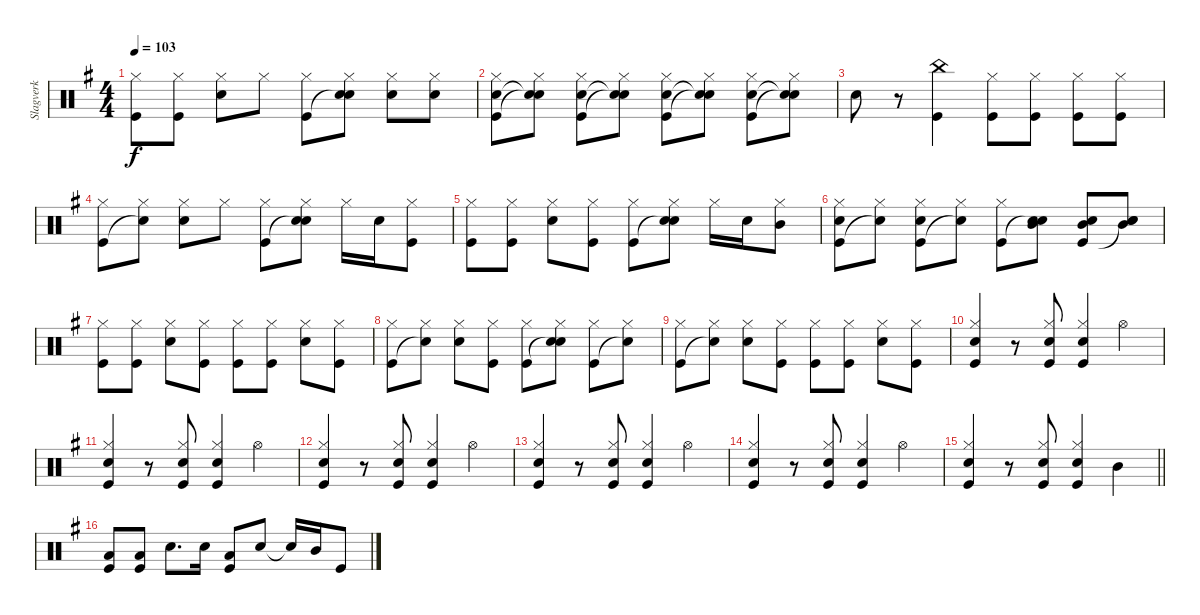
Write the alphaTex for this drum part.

\track ("Slagverk" "Slagverk") {instrument percussion}
\staff {score}
\articulation defaults
\ts (4 4)
\tempo 103
\clef neutral
\ks g
("Kick (hit)" "Hi-Hat (closed)").8{dy f} ("Kick (hit)" "Hi-Hat (closed)").8 ("Snare (hit) 2" "Hi-Hat (closed)").8 "Hi-Hat (closed)".8 ("Kick (hit)" "Hi-Hat (closed)").8 ("Snare (hit)"{t} "Snare (hit) 2" "Hi-Hat (closed)").8 ("Snare (hit) 2" "Hi-Hat (closed)").8 ("Snare (hit) 2" "Hi-Hat (closed)").8 |
("Kick (hit)" "Snare (hit) 2" "Hi-Hat (closed)").8 ("Snare (hit)"{t} "Snare (hit)"{t} "Hi-Hat (closed)").8 ("Kick (hit)" "Snare (hit) 2" "Hi-Hat (closed)").8 ("Snare (hit)"{t} "Snare (hit)"{t} "Hi-Hat (closed)").8 ("Kick (hit)" "Snare (hit) 2" "Hi-Hat (closed)").8 ("Snare (hit)"{t} "Snare (hit)"{t} "Hi-Hat (closed)").8 ("Kick (hit)" "Snare (hit) 2" "Hi-Hat (closed)").8 ("Snare (hit)"{t} "Snare (hit)"{t} "Hi-Hat (closed)").8 |
"Snare (hit) 2".8 r.8 ("Kick (hit)" "China (hit)").4 ("Kick (hit)" "Hi-Hat (closed)").8 ("Kick (hit)" "Hi-Hat (closed)").8 ("Kick (hit)" "Hi-Hat (closed)").8 ("Kick (hit)" "Hi-Hat (closed)").8 |
("Kick (hit)" "Hi-Hat (closed)").8 ("Snare (hit)"{t} "Hi-Hat (closed)").8 ("Snare (hit) 2" "Hi-Hat (closed)").8 "Hi-Hat (closed)".8 ("Kick (hit)" "Hi-Hat (closed)").8 ("Snare (hit)"{t} "Snare (hit) 2" "Hi-Hat (closed)").8 "Hi-Hat (closed)".16 "Snare (hit) 2".16 ("Kick (hit)" "Hi-Hat (closed)").8 |
("Kick (hit)" "Hi-Hat (closed)").8 ("Kick (hit)" "Hi-Hat (closed)").8 ("Snare (hit) 2" "Hi-Hat (closed)").8 ("Kick (hit)" "Hi-Hat (closed)").8 ("Kick (hit)" "Hi-Hat (closed)").8 ("Snare (hit)"{t} "Snare (hit) 2" "Hi-Hat (closed)").8 "Hi-Hat (closed)".16 "Snare (hit) 2".16 ("Mid Tom (hit)" "Hi-Hat (closed)").8 |
("Kick (hit)" "Snare (hit) 2" "Hi-Hat (closed)").8 ("Snare (hit)"{t} "Hi-Hat (closed)").8 ("Kick (hit)" "Snare (hit) 2" "Hi-Hat (closed)").8 ("Snare (hit)"{t} "Hi-Hat (closed)").8 ("Kick (hit)" "Hi-Hat (closed)").8 ("Snare (hit)"{t} "Snare (hit) 2" "Mid Tom (hit)").8 ("Kick (hit)" "Snare (hit) 2" "Mid Tom (hit)").8 ("Snare (hit)"{t} "Snare (hit) 2" "Mid Tom (hit)").8 |
("Kick (hit)" "Hi-Hat (closed)").8 ("Kick (hit)" "Hi-Hat (closed)").8 ("Snare (hit) 2" "Hi-Hat (closed)").8 ("Kick (hit)" "Hi-Hat (closed)").8 ("Kick (hit)" "Hi-Hat (closed)").8 ("Kick (hit)" "Hi-Hat (closed)").8 ("Snare (hit) 2" "Hi-Hat (closed)").8 ("Kick (hit)" "Hi-Hat (closed)").8 |
("Kick (hit)" "Hi-Hat (closed)").8 ("Snare (hit)"{t} "Hi-Hat (closed)").8 ("Snare (hit) 2" "Hi-Hat (closed)").8 ("Kick (hit)" "Hi-Hat (closed)").8 ("Kick (hit)" "Hi-Hat (closed)").8 ("Snare (hit)"{t} "Snare (hit) 2" "Hi-Hat (closed)").8 ("Kick (hit)" "Hi-Hat (closed)").8 ("Snare (hit)"{t} "Hi-Hat (closed)").8 |
("Kick (hit)" "Hi-Hat (closed)").8 ("Snare (hit)"{t} "Hi-Hat (closed)").8 ("Snare (hit) 2" "Hi-Hat (closed)").8 ("Kick (hit)" "Hi-Hat (closed)").8 ("Kick (hit)" "Hi-Hat (closed)").8 ("Kick (hit)" "Hi-Hat (closed)").8 ("Snare (hit) 2" "Hi-Hat (closed)").8 ("Kick (hit)" "Hi-Hat (closed)").8 |
("Kick (hit)" "Snare (hit) 2" "Hi-Hat (closed)").4 r.8 ("Kick (hit)" "Snare (hit) 2" "Hi-Hat (closed)").8 ("Kick (hit)" "Snare (hit) 2" "Hi-Hat (closed)").4 "Hi-Hat (open)".4 |
("Kick (hit)" "Snare (hit) 2" "Hi-Hat (closed)").4 r.8 ("Kick (hit)" "Snare (hit) 2" "Hi-Hat (closed)").8 ("Kick (hit)" "Snare (hit) 2" "Hi-Hat (closed)").4 "Hi-Hat (open)".4 |
("Kick (hit)" "Snare (hit) 2" "Hi-Hat (closed)").4 r.8 ("Kick (hit)" "Snare (hit) 2" "Hi-Hat (closed)").8 ("Kick (hit)" "Snare (hit) 2" "Hi-Hat (closed)").4 "Hi-Hat (open)".4 |
("Kick (hit)" "Snare (hit) 2" "Hi-Hat (closed)").4 r.8 ("Kick (hit)" "Snare (hit) 2" "Hi-Hat (closed)").8 ("Kick (hit)" "Snare (hit) 2" "Hi-Hat (closed)").4 "Hi-Hat (open)".4 |
("Kick (hit)" "Snare (hit) 2" "Hi-Hat (closed)").4 r.8 ("Kick (hit)" "Snare (hit) 2" "Hi-Hat (closed)").8 ("Kick (hit)" "Snare (hit) 2" "Hi-Hat (closed)").4 "Hi-Hat (open)".4 |
\barLineRight lightlight
("Kick (hit)" "Snare (hit) 2" "Hi-Hat (closed)").4 r.8 ("Kick (hit)" "Snare (hit) 2" "Hi-Hat (closed)").8 ("Kick (hit)" "Snare (hit) 2" "Hi-Hat (closed)").4 "Mid Tom (hit)".4 |
("Kick (hit)" "Low Tom (hit)").8 ("Kick (hit)" "Low Tom (hit)").8 "Snare (hit) 2".8{d} "Snare (hit) 2".16 ("Kick (hit)" "Low Tom (hit)").8 "Snare (hit) 2".8 "Snare (hit)"{t}.16 "Mid Tom (hit)".16 "Kick (hit)".8
